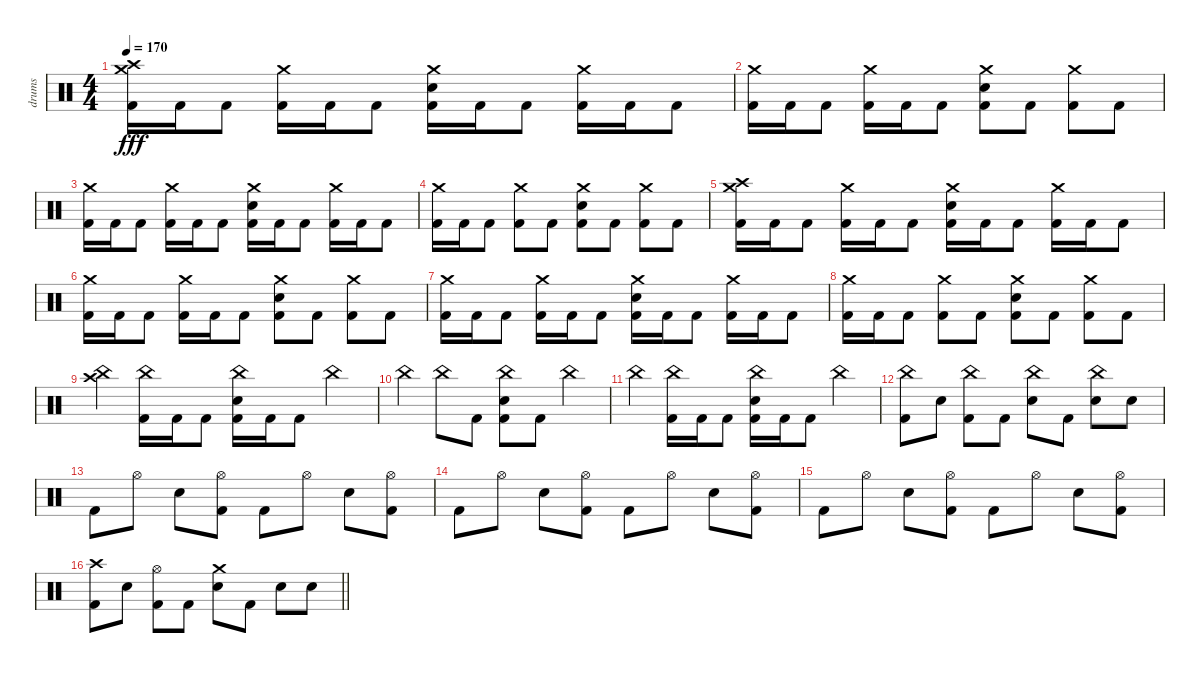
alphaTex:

\track ("drums" "drums") {instrument percussion}
\staff {score}
\articulation defaults
\ts (4 4)
\section ("" "")
\tempo 170
\clef neutral
\ks c
("Crash high (hit)" "Crash medium (hit)" "Kick (hit) 2").16{dy fff} "Kick (hit) 2".16 "Kick (hit) 2".8 ("Crash medium (hit)" "Kick (hit) 2").16 "Kick (hit) 2".16 "Kick (hit) 2".8 ("Crash medium (hit)" "Electric Snare (hit)" "Kick (hit) 2").16 "Kick (hit) 2".16 "Kick (hit) 2".8 ("Crash medium (hit)" "Kick (hit) 2").16 "Kick (hit) 2".16 "Kick (hit) 2".8 |
("Crash medium (hit)" "Kick (hit) 2").16 "Kick (hit) 2".16 "Kick (hit) 2".8 ("Crash medium (hit)" "Kick (hit) 2").16 "Kick (hit) 2".16 "Kick (hit) 2".8 ("Crash medium (hit)" "Electric Snare (hit)" "Kick (hit) 2").8 "Kick (hit) 2".8 ("Crash medium (hit)" "Kick (hit) 2").8 "Kick (hit) 2".8 |
("Crash medium (hit)" "Kick (hit) 2").16 "Kick (hit) 2".16 "Kick (hit) 2".8 ("Crash medium (hit)" "Kick (hit) 2").16 "Kick (hit) 2".16 "Kick (hit) 2".8 ("Crash medium (hit)" "Electric Snare (hit)" "Kick (hit) 2").16 "Kick (hit) 2".16 "Kick (hit) 2".8 ("Crash medium (hit)" "Kick (hit) 2").16 "Kick (hit) 2".16 "Kick (hit) 2".8 |
("Crash medium (hit)" "Kick (hit) 2").16 "Kick (hit) 2".16 "Kick (hit) 2".8 ("Crash medium (hit)" "Kick (hit) 2").8 "Kick (hit) 2".8 ("Crash medium (hit)" "Electric Snare (hit)" "Kick (hit) 2").8 "Kick (hit) 2".8 ("Crash medium (hit)" "Kick (hit) 2").8 "Kick (hit) 2".8 |
("Crash high (hit)" "Crash medium (hit)" "Kick (hit) 2").16 "Kick (hit) 2".16 "Kick (hit) 2".8 ("Crash medium (hit)" "Kick (hit) 2").16 "Kick (hit) 2".16 "Kick (hit) 2".8 ("Crash medium (hit)" "Electric Snare (hit)" "Kick (hit) 2").16 "Kick (hit) 2".16 "Kick (hit) 2".8 ("Crash medium (hit)" "Kick (hit) 2").16 "Kick (hit) 2".16 "Kick (hit) 2".8 |
("Crash medium (hit)" "Kick (hit) 2").16 "Kick (hit) 2".16 "Kick (hit) 2".8 ("Crash medium (hit)" "Kick (hit) 2").16 "Kick (hit) 2".16 "Kick (hit) 2".8 ("Crash medium (hit)" "Electric Snare (hit)" "Kick (hit) 2").8 "Kick (hit) 2".8 ("Crash medium (hit)" "Kick (hit) 2").8 "Kick (hit) 2".8 |
("Crash medium (hit)" "Kick (hit) 2").16 "Kick (hit) 2".16 "Kick (hit) 2".8 ("Crash medium (hit)" "Kick (hit) 2").16 "Kick (hit) 2".16 "Kick (hit) 2".8 ("Crash medium (hit)" "Electric Snare (hit)" "Kick (hit) 2").16 "Kick (hit) 2".16 "Kick (hit) 2".8 ("Crash medium (hit)" "Kick (hit) 2").16 "Kick (hit) 2".16 "Kick (hit) 2".8 |
("Crash medium (hit)" "Kick (hit) 2").16 "Kick (hit) 2".16 "Kick (hit) 2".8 ("Crash medium (hit)" "Kick (hit) 2").8 "Kick (hit) 2".8 ("Crash medium (hit)" "Electric Snare (hit)" "Kick (hit) 2").8 "Kick (hit) 2".8 ("Crash medium (hit)" "Kick (hit) 2").8 "Kick (hit) 2".8 |
("China (hit)" "Crash high (hit)").4 ("China (hit)" "Kick (hit) 2").16 "Kick (hit) 2".16 "Kick (hit) 2".8 ("China (hit)" "Electric Snare (hit)" "Kick (hit) 2").16 "Kick (hit) 2".16 "Kick (hit) 2".8 "China (hit)".4 |
"China (hit)".4 "China (hit)".8 "Kick (hit) 2".8 ("China (hit)" "Electric Snare (hit)" "Kick (hit) 2").8 "Kick (hit) 2".8 "China (hit)".4 |
"China (hit)".4 ("China (hit)" "Kick (hit) 2").16 "Kick (hit) 2".16 "Kick (hit) 2".8 ("China (hit)" "Electric Snare (hit)" "Kick (hit) 2").16 "Kick (hit) 2".16 "Kick (hit) 2".8 "China (hit)".4 |
("China (hit)" "Kick (hit) 2").8 "Electric Snare (hit)".8 ("China (hit)" "Kick (hit) 2").8 "Kick (hit) 2".8 ("China (hit)" "Electric Snare (hit)").8 "Kick (hit) 2".8 ("China (hit)" "Electric Snare (hit)").8 "Electric Snare (hit)".8 |
"Kick (hit) 2".8 "Hi-Hat (open)".8 "Electric Snare (hit)".8 ("Hi-Hat (open)" "Kick (hit) 2").8 "Kick (hit) 2".8 "Hi-Hat (open)".8 "Electric Snare (hit)".8 ("Hi-Hat (open)" "Kick (hit) 2").8 |
"Kick (hit) 2".8 "Hi-Hat (open)".8 "Electric Snare (hit)".8 ("Hi-Hat (open)" "Kick (hit) 2").8 "Kick (hit) 2".8 "Hi-Hat (open)".8 "Electric Snare (hit)".8 ("Hi-Hat (open)" "Kick (hit) 2").8 |
"Kick (hit) 2".8 "Hi-Hat (open)".8 "Electric Snare (hit)".8 ("Hi-Hat (open)" "Kick (hit) 2").8 "Kick (hit) 2".8 "Hi-Hat (open)".8 "Electric Snare (hit)".8 ("Hi-Hat (open)" "Kick (hit) 2").8 |
\barLineRight lightlight
("Crash high (hit)" "Kick (hit) 2").8 "Electric Snare (hit)".8 ("Hi-Hat (open)" "Kick (hit) 2").8 "Kick (hit) 2".8 ("Crash medium (hit)" "Electric Snare (hit)").8 "Kick (hit) 2".8 "Electric Snare (hit)".8 "Electric Snare (hit)".8
